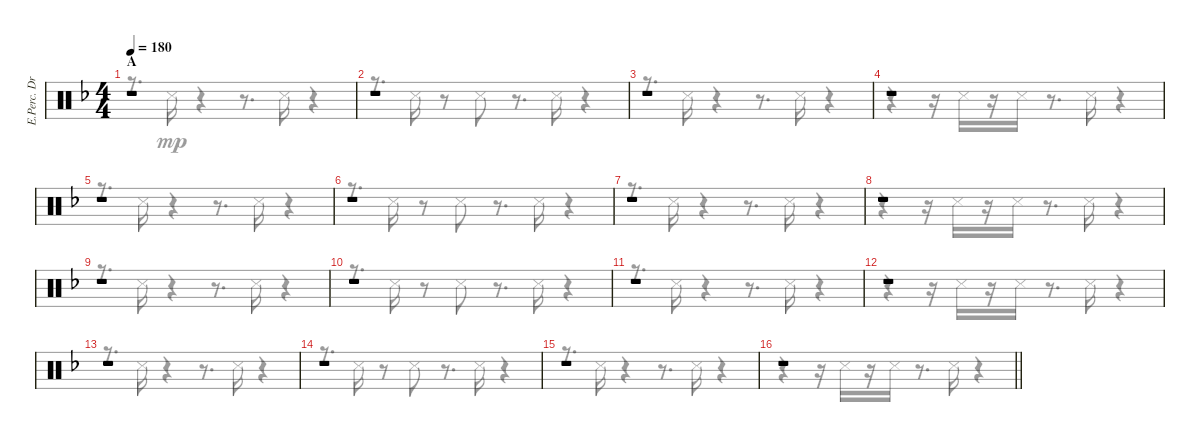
\track ("E.Perc. Drums" "E.Perc. Dr") {instrument percussion}
\staff {score}
\articulation defaults
\voice
\ts (4 4)
\section ("" "A")
\tempo 180
\clef neutral
\ks f
r.1{dy mp} |
r.1 |
r.1 |
r.1 |
r.1 |
r.1 |
r.1 |
r.1 |
r.1 |
r.1 |
r.1 |
r.1 |
r.1 |
r.1 |
r.1 |
\barLineRight lightlight
r.1
\voice
\clef neutral
\ottava regular
\simile none
\ks f
r.8{d dy mp} "Snare (side stick) 3".16 r.4 r.8{d} "Snare (side stick) 3".16 r.4 |
r.8{d} "Snare (side stick) 3".16 r.8 "Snare (side stick) 3".8 r.8{d} "Snare (side stick) 3".16 r.4 |
r.8{d} "Snare (side stick) 3".16 r.4 r.8{d} "Snare (side stick) 3".16 r.4 |
r.4 r.16 "Snare (side stick) 3".16 r.16 "Snare (side stick) 3".16 r.8{d} "Snare (side stick) 3".16 r.4 |
r.8{d} "Snare (side stick) 3".16 r.4 r.8{d} "Snare (side stick) 3".16 r.4 |
r.8{d} "Snare (side stick) 3".16 r.8 "Snare (side stick) 3".8 r.8{d} "Snare (side stick) 3".16 r.4 |
r.8{d} "Snare (side stick) 3".16 r.4 r.8{d} "Snare (side stick) 3".16 r.4 |
r.4 r.16 "Snare (side stick) 3".16 r.16 "Snare (side stick) 3".16 r.8{d} "Snare (side stick) 3".16 r.4 |
r.8{d} "Snare (side stick) 3".16 r.4 r.8{d} "Snare (side stick) 3".16 r.4 |
r.8{d} "Snare (side stick) 3".16 r.8 "Snare (side stick) 3".8 r.8{d} "Snare (side stick) 3".16 r.4 |
r.8{d} "Snare (side stick) 3".16 r.4 r.8{d} "Snare (side stick) 3".16 r.4 |
r.4 r.16 "Snare (side stick) 3".16 r.16 "Snare (side stick) 3".16 r.8{d} "Snare (side stick) 3".16 r.4 |
r.8{d} "Snare (side stick) 3".16 r.4 r.8{d} "Snare (side stick) 3".16 r.4 |
r.8{d} "Snare (side stick) 3".16 r.8 "Snare (side stick) 3".8 r.8{d} "Snare (side stick) 3".16 r.4 |
r.8{d} "Snare (side stick) 3".16 r.4 r.8{d} "Snare (side stick) 3".16 r.4 |
\barLineRight lightlight
r.4 r.16 "Snare (side stick) 3".16 r.16 "Snare (side stick) 3".16 r.8{d} "Snare (side stick) 3".16 r.4
